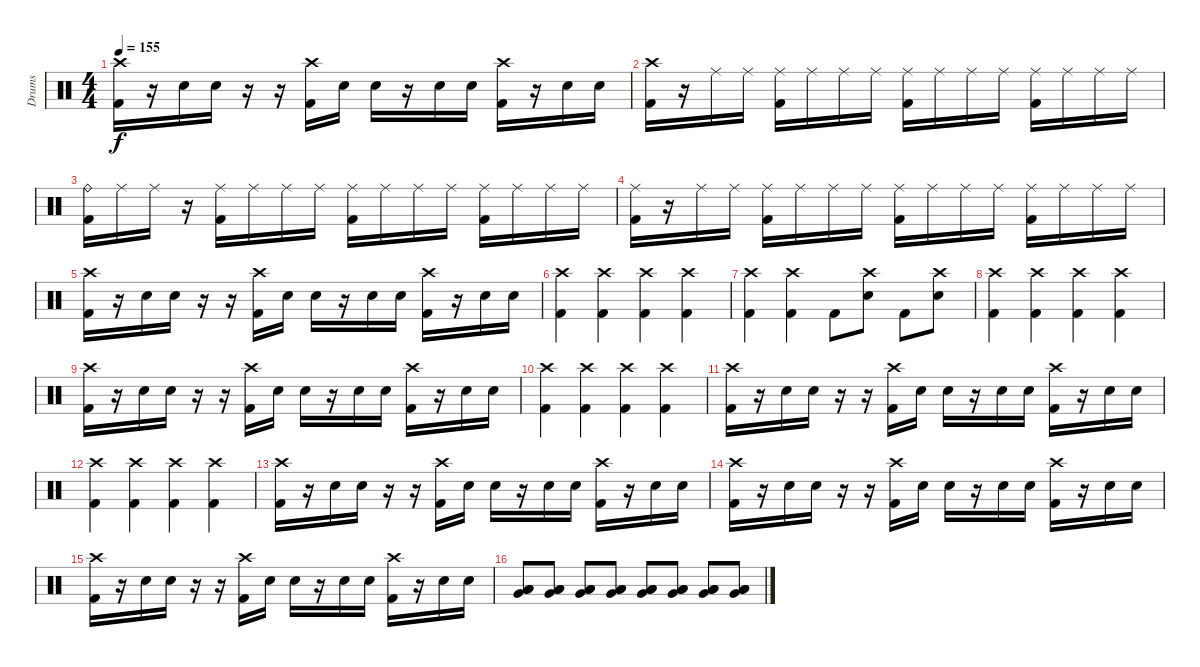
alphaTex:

\track ("Drums" "Drums") {instrument percussion}
\staff {score}
\articulation defaults
\ts (4 4)
\tempo 155
\clef neutral
\ks c
("Crash high (hit)" "Kick (hit) 2").16{dy f} r.16 "Snare (hit) 2".16 "Snare (hit) 2".16 r.16 r.16 ("Kick (hit) 2" "Crash high (hit)").16 "Snare (hit) 2".16 "Snare (hit) 2".16 r.16 "Snare (hit) 2".16 "Snare (hit) 2".16 ("Crash high (hit)" "Kick (hit) 2").16 r.16 "Snare (hit) 2".16 "Snare (hit) 2".16 |
("Crash high (hit)" "Kick (hit) 2").16 r.16 "Ride (middle)".16 "Ride (middle)".16 ("Ride (middle)" "Kick (hit) 2").16 "Ride (middle)".16 "Ride (middle)".16 "Ride (middle)".16 ("Ride (middle)" "Kick (hit) 2").16 "Ride (middle)".16 "Ride (middle)".16 "Ride (middle)".16 ("Ride (middle)" "Kick (hit) 2").16 "Ride (middle)".16 "Ride (middle)".16 "Ride (middle)".16 |
("Ride (bell)" "Kick (hit) 2").16 "Ride (middle)".16 "Ride (middle)".16 r.16 ("Ride (middle)" "Kick (hit) 2").16 "Ride (middle)".16 "Ride (middle)".16 "Ride (middle)".16 ("Ride (middle)" "Kick (hit) 2").16 "Ride (middle)".16 "Ride (middle)".16 "Ride (middle)".16 ("Ride (middle)" "Kick (hit) 2").16 "Ride (middle)".16 "Ride (middle)".16 "Ride (middle)".16 |
("Ride (middle)" "Kick (hit) 2").16 r.16 "Ride (middle)".16 "Ride (middle)".16 ("Ride (middle)" "Kick (hit) 2").16 "Ride (middle)".16 "Ride (middle)".16 "Ride (middle)".16 ("Ride (middle)" "Kick (hit) 2").16 "Ride (middle)".16 "Ride (middle)".16 "Ride (middle)".16 ("Ride (middle)" "Kick (hit) 2").16 "Ride (middle)".16 "Ride (middle)".16 "Ride (middle)".16 |
("Crash high (hit)" "Kick (hit) 2").16 r.16 "Snare (hit) 2".16 "Snare (hit) 2".16 r.16 r.16 ("Kick (hit) 2" "Crash high (hit)").16 "Snare (hit) 2".16 "Snare (hit) 2".16 r.16 "Snare (hit) 2".16 "Snare (hit) 2".16 ("Crash high (hit)" "Kick (hit) 2").16 r.16 "Snare (hit) 2".16 "Snare (hit) 2".16 |
("Kick (hit) 2" "Crash high (hit)").4{volume 13} ("Kick (hit) 2" "Crash high (hit)").4{volume 14} ("Kick (hit) 2" "Crash high (hit)").4{volume 15} ("Crash high (hit)" "Kick (hit) 2").4{volume 16} |
("Kick (hit) 2" "Crash high (hit)").4 ("Kick (hit) 2" "Crash high (hit)").4 "Kick (hit) 2".8 ("Snare (hit) 2" "Crash high (hit)").8 "Kick (hit) 2".8 ("Snare (hit) 2" "Crash high (hit)").8 |
("Crash high (hit)" "Kick (hit) 2").4 ("Crash high (hit)" "Kick (hit) 2").4 ("Crash high (hit)" "Kick (hit) 2").4 ("Crash high (hit)" "Kick (hit) 2").4 |
("Crash high (hit)" "Kick (hit) 2").16 r.16 "Snare (hit) 2".16 "Snare (hit) 2".16 r.16 r.16 ("Kick (hit) 2" "Crash high (hit)").16 "Snare (hit) 2".16 "Snare (hit) 2".16 r.16 "Snare (hit) 2".16 "Snare (hit) 2".16 ("Crash high (hit)" "Kick (hit) 2").16 r.16 "Snare (hit) 2".16 "Snare (hit) 2".16 |
("Crash high (hit)" "Kick (hit) 2").4 ("Crash high (hit)" "Kick (hit) 2").4 ("Crash high (hit)" "Kick (hit) 2").4 ("Crash high (hit)" "Kick (hit) 2").4 |
("Crash high (hit)" "Kick (hit) 2").16 r.16 "Snare (hit) 2".16 "Snare (hit) 2".16 r.16 r.16 ("Kick (hit) 2" "Crash high (hit)").16 "Snare (hit) 2".16 "Snare (hit) 2".16 r.16 "Snare (hit) 2".16 "Snare (hit) 2".16 ("Crash high (hit)" "Kick (hit) 2").16 r.16 "Snare (hit) 2".16 "Snare (hit) 2".16 |
("Crash high (hit)" "Kick (hit) 2").4 ("Crash high (hit)" "Kick (hit) 2").4 ("Crash high (hit)" "Kick (hit) 2").4 ("Crash high (hit)" "Kick (hit) 2").4 |
("Crash high (hit)" "Kick (hit) 2").16 r.16 "Snare (hit) 2".16 "Snare (hit) 2".16 r.16 r.16 ("Kick (hit) 2" "Crash high (hit)").16 "Snare (hit) 2".16 "Snare (hit) 2".16 r.16 "Snare (hit) 2".16 "Snare (hit) 2".16 ("Crash high (hit)" "Kick (hit) 2").16 r.16 "Snare (hit) 2".16 "Snare (hit) 2".16 |
("Crash high (hit)" "Kick (hit) 2").16 r.16 "Snare (hit) 2".16 "Snare (hit) 2".16 r.16 r.16 ("Kick (hit) 2" "Crash high (hit)").16 "Snare (hit) 2".16 "Snare (hit) 2".16 r.16 "Snare (hit) 2".16 "Snare (hit) 2".16 ("Crash high (hit)" "Kick (hit) 2").16 r.16 "Snare (hit) 2".16 "Snare (hit) 2".16 |
("Crash high (hit)" "Kick (hit) 2").16 r.16 "Snare (hit) 2".16 "Snare (hit) 2".16 r.16 r.16 ("Kick (hit) 2" "Crash high (hit)").16 "Snare (hit) 2".16 "Snare (hit) 2".16 r.16 "Snare (hit) 2".16 "Snare (hit) 2".16 ("Crash high (hit)" "Kick (hit) 2").16 r.16 "Snare (hit) 2".16 "Snare (hit) 2".16 |
("Low Floor Tom (hit)" "Low Floor Tom (hit)" "Very Low Tom (hit)").8 ("Low Floor Tom (hit)" "Low Floor Tom (hit)" "Very Low Tom (hit)").8 ("Low Floor Tom (hit)" "Low Floor Tom (hit)" "Very Low Tom (hit)").8 ("Low Floor Tom (hit)" "Low Floor Tom (hit)" "Very Low Tom (hit)").8 ("Low Floor Tom (hit)" "Low Floor Tom (hit)" "Very Low Tom (hit)").8 ("Low Floor Tom (hit)" "Low Floor Tom (hit)" "Very Low Tom (hit)").8 ("Low Floor Tom (hit)" "Low Floor Tom (hit)" "Very Low Tom (hit)").8 ("Low Floor Tom (hit)" "Low Floor Tom (hit)" "Very Low Tom (hit)").8
